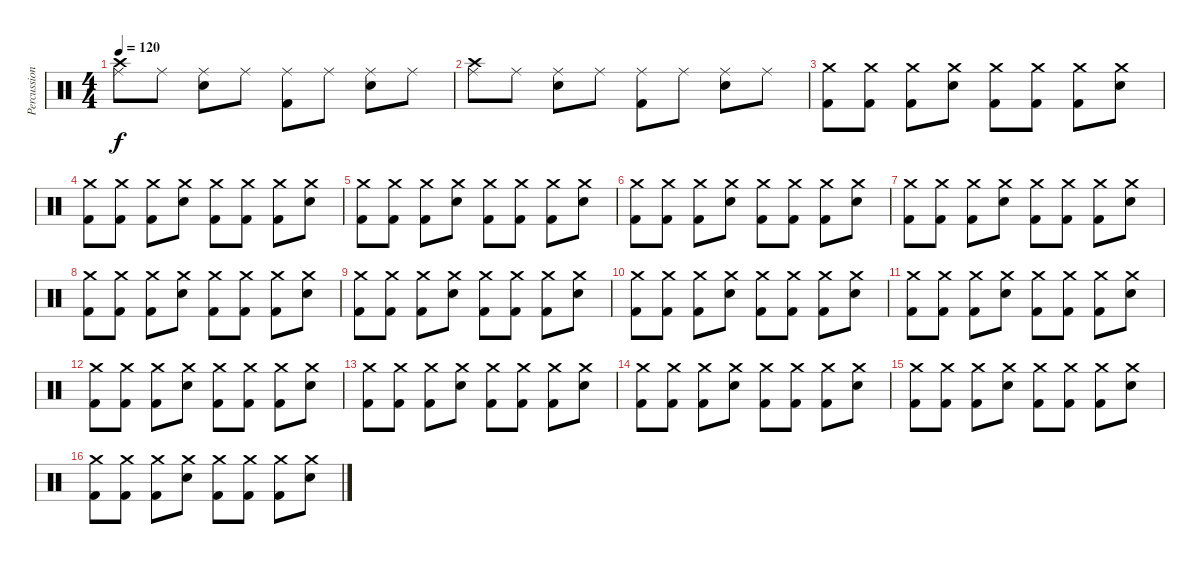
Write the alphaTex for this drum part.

\track ("Percussions" "Percussion") {instrument percussion}
\staff {score}
\articulation defaults
\ts (4 4)
\tempo 120
\clef neutral
\ks c
("Ride (middle)" "Crash high (hit)").8{dy f} "Ride (middle)".8 ("Ride (middle)" "Electric Snare (hit)").8 "Ride (middle)".8 ("Ride (middle)" "Kick (hit) 2").8 "Ride (middle)".8 ("Ride (middle)" "Electric Snare (hit)").8 "Ride (middle)".8 |
("Ride (middle)" "Crash high (hit)").8 "Ride (middle)".8 ("Ride (middle)" "Electric Snare (hit)").8 "Ride (middle)".8 ("Ride (middle)" "Kick (hit) 2").8 "Ride (middle)".8 ("Ride (middle)" "Electric Snare (hit)").8 "Ride (middle)".8 |
("Crash medium (hit)" "Kick (hit) 2").8 ("Crash medium (hit)" "Kick (hit) 2").8 ("Crash medium (hit)" "Kick (hit) 2").8 ("Crash medium (hit)" "Electric Snare (hit)").8 ("Crash medium (hit)" "Kick (hit) 2").8 ("Crash medium (hit)" "Kick (hit) 2").8 ("Crash medium (hit)" "Kick (hit) 2").8 ("Crash medium (hit)" "Electric Snare (hit)").8 |
("Crash medium (hit)" "Kick (hit) 2").8 ("Crash medium (hit)" "Kick (hit) 2").8 ("Crash medium (hit)" "Kick (hit) 2").8 ("Crash medium (hit)" "Electric Snare (hit)").8 ("Crash medium (hit)" "Kick (hit) 2").8 ("Crash medium (hit)" "Kick (hit) 2").8 ("Crash medium (hit)" "Kick (hit) 2").8 ("Crash medium (hit)" "Electric Snare (hit)").8 |
("Crash medium (hit)" "Kick (hit) 2").8 ("Crash medium (hit)" "Kick (hit) 2").8 ("Crash medium (hit)" "Kick (hit) 2").8 ("Crash medium (hit)" "Electric Snare (hit)").8 ("Crash medium (hit)" "Kick (hit) 2").8 ("Crash medium (hit)" "Kick (hit) 2").8 ("Crash medium (hit)" "Kick (hit) 2").8 ("Crash medium (hit)" "Electric Snare (hit)").8 |
("Crash medium (hit)" "Kick (hit) 2").8 ("Crash medium (hit)" "Kick (hit) 2").8 ("Crash medium (hit)" "Kick (hit) 2").8 ("Crash medium (hit)" "Electric Snare (hit)").8 ("Crash medium (hit)" "Kick (hit) 2").8 ("Crash medium (hit)" "Kick (hit) 2").8 ("Crash medium (hit)" "Kick (hit) 2").8 ("Crash medium (hit)" "Electric Snare (hit)").8 |
("Crash medium (hit)" "Kick (hit) 2").8 ("Crash medium (hit)" "Kick (hit) 2").8 ("Crash medium (hit)" "Kick (hit) 2").8 ("Crash medium (hit)" "Electric Snare (hit)").8 ("Crash medium (hit)" "Kick (hit) 2").8 ("Crash medium (hit)" "Kick (hit) 2").8 ("Crash medium (hit)" "Kick (hit) 2").8 ("Crash medium (hit)" "Electric Snare (hit)").8 |
("Crash medium (hit)" "Kick (hit) 2").8 ("Crash medium (hit)" "Kick (hit) 2").8 ("Crash medium (hit)" "Kick (hit) 2").8 ("Crash medium (hit)" "Electric Snare (hit)").8 ("Crash medium (hit)" "Kick (hit) 2").8 ("Crash medium (hit)" "Kick (hit) 2").8 ("Crash medium (hit)" "Kick (hit) 2").8 ("Crash medium (hit)" "Electric Snare (hit)").8 |
("Crash medium (hit)" "Kick (hit) 2").8 ("Crash medium (hit)" "Kick (hit) 2").8 ("Crash medium (hit)" "Kick (hit) 2").8 ("Crash medium (hit)" "Electric Snare (hit)").8 ("Crash medium (hit)" "Kick (hit) 2").8 ("Crash medium (hit)" "Kick (hit) 2").8 ("Crash medium (hit)" "Kick (hit) 2").8 ("Crash medium (hit)" "Electric Snare (hit)").8 |
("Crash medium (hit)" "Kick (hit) 2").8 ("Crash medium (hit)" "Kick (hit) 2").8 ("Crash medium (hit)" "Kick (hit) 2").8 ("Crash medium (hit)" "Electric Snare (hit)").8 ("Crash medium (hit)" "Kick (hit) 2").8 ("Crash medium (hit)" "Kick (hit) 2").8 ("Crash medium (hit)" "Kick (hit) 2").8 ("Crash medium (hit)" "Electric Snare (hit)").8 |
("Crash medium (hit)" "Kick (hit) 2").8 ("Crash medium (hit)" "Kick (hit) 2").8 ("Crash medium (hit)" "Kick (hit) 2").8 ("Crash medium (hit)" "Electric Snare (hit)").8 ("Crash medium (hit)" "Kick (hit) 2").8 ("Crash medium (hit)" "Kick (hit) 2").8 ("Crash medium (hit)" "Kick (hit) 2").8 ("Crash medium (hit)" "Electric Snare (hit)").8 |
("Crash medium (hit)" "Kick (hit) 2").8 ("Crash medium (hit)" "Kick (hit) 2").8 ("Crash medium (hit)" "Kick (hit) 2").8 ("Crash medium (hit)" "Electric Snare (hit)").8 ("Crash medium (hit)" "Kick (hit) 2").8 ("Crash medium (hit)" "Kick (hit) 2").8 ("Crash medium (hit)" "Kick (hit) 2").8 ("Crash medium (hit)" "Electric Snare (hit)").8 |
("Crash medium (hit)" "Kick (hit) 2").8 ("Crash medium (hit)" "Kick (hit) 2").8 ("Crash medium (hit)" "Kick (hit) 2").8 ("Crash medium (hit)" "Electric Snare (hit)").8 ("Crash medium (hit)" "Kick (hit) 2").8 ("Crash medium (hit)" "Kick (hit) 2").8 ("Crash medium (hit)" "Kick (hit) 2").8 ("Crash medium (hit)" "Electric Snare (hit)").8 |
("Crash medium (hit)" "Kick (hit) 2").8 ("Crash medium (hit)" "Kick (hit) 2").8 ("Crash medium (hit)" "Kick (hit) 2").8 ("Crash medium (hit)" "Electric Snare (hit)").8 ("Crash medium (hit)" "Kick (hit) 2").8 ("Crash medium (hit)" "Kick (hit) 2").8 ("Crash medium (hit)" "Kick (hit) 2").8 ("Crash medium (hit)" "Electric Snare (hit)").8 |
("Crash medium (hit)" "Kick (hit) 2").8 ("Crash medium (hit)" "Kick (hit) 2").8 ("Crash medium (hit)" "Kick (hit) 2").8 ("Crash medium (hit)" "Electric Snare (hit)").8 ("Crash medium (hit)" "Kick (hit) 2").8 ("Crash medium (hit)" "Kick (hit) 2").8 ("Crash medium (hit)" "Kick (hit) 2").8 ("Crash medium (hit)" "Electric Snare (hit)").8 |
("Crash medium (hit)" "Kick (hit) 2").8 ("Crash medium (hit)" "Kick (hit) 2").8 ("Crash medium (hit)" "Kick (hit) 2").8 ("Crash medium (hit)" "Electric Snare (hit)").8 ("Crash medium (hit)" "Kick (hit) 2").8 ("Crash medium (hit)" "Kick (hit) 2").8 ("Crash medium (hit)" "Kick (hit) 2").8 ("Crash medium (hit)" "Electric Snare (hit)").8
